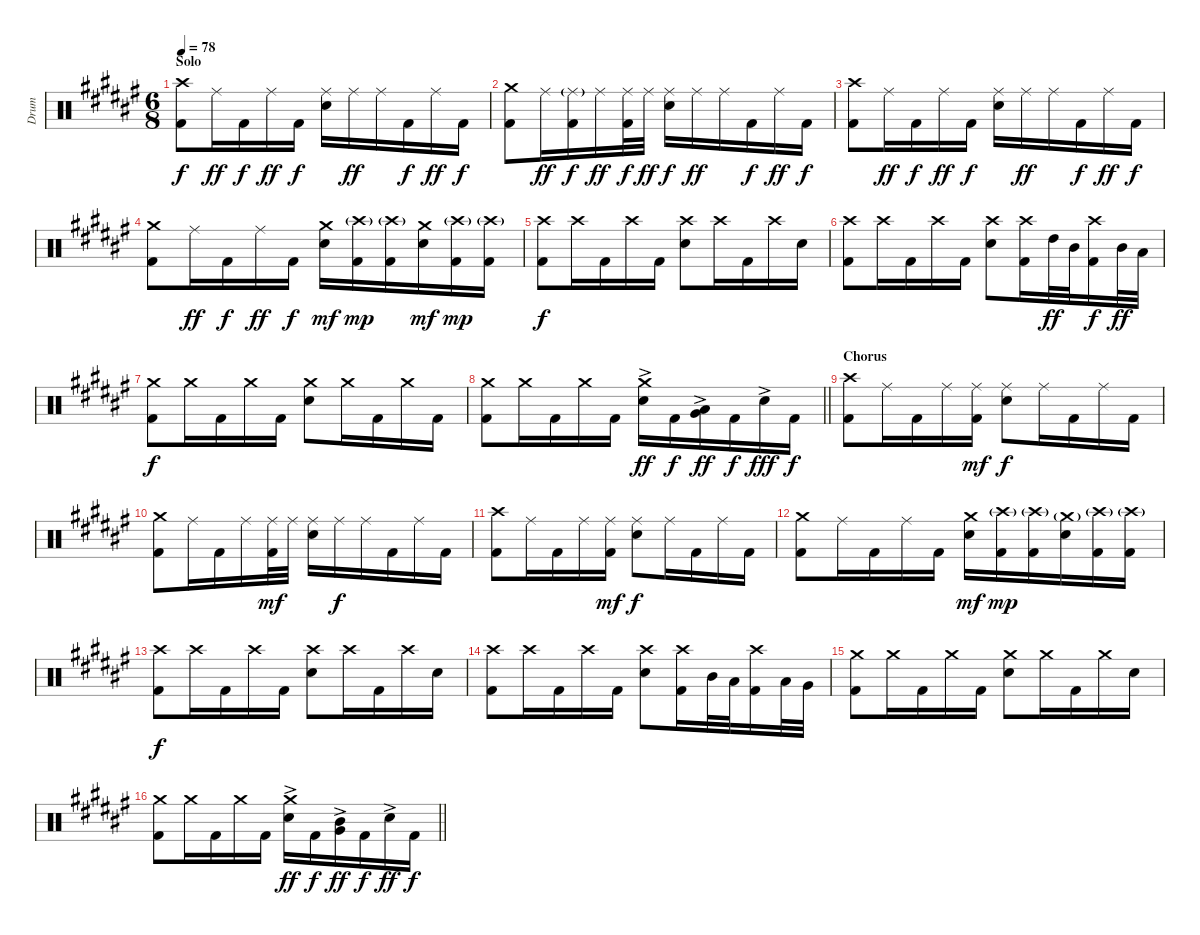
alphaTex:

\track ("Drum" "Drum") {instrument percussion}
\staff {score}
\articulation defaults
\ts (6 8)
\section ("" "Solo")
\tempo 78
\clef neutral
\ks d#minor
("Crash high (hit)" "Kick (hit) 2").8{dy f} "Ride (middle)".16{dy ff} "Kick (hit) 2".16{dy f} "Ride (middle)".16{dy ff} "Kick (hit) 2".16{dy f} ("Ride (middle)" "Electric Snare (hit)").16 "Ride (middle)".16{dy ff} "Ride (middle)".16 "Kick (hit) 2".16{dy f} "Ride (middle)".16{dy ff} "Kick (hit) 2".16{dy f} |
("Crash medium (hit)" "Kick (hit) 2").8 "Ride (middle)".16{dy ff} ("Ride (middle)"{g} "Kick (hit) 2").16{dy f} "Ride (middle)".16{dy ff} ("Ride (middle)" "Kick (hit) 2").32{dy f} "Ride (middle)".32{dy ff} ("Ride (middle)" "Electric Snare (hit)").16{dy f} "Ride (middle)".16{dy ff} "Ride (middle)".16 "Kick (hit) 2".16{dy f} "Ride (middle)".16{dy ff} "Kick (hit) 2".16{dy f} |
("Crash high (hit)" "Kick (hit) 2").8 "Ride (middle)".16{dy ff} "Kick (hit) 2".16{dy f} "Ride (middle)".16{dy ff} "Kick (hit) 2".16{dy f} ("Ride (middle)" "Electric Snare (hit)").16 "Ride (middle)".16{dy ff} "Ride (middle)".16 "Kick (hit) 2".16{dy f} "Ride (middle)".16{dy ff} "Kick (hit) 2".16{dy f} |
("Crash medium (hit)" "Kick (hit) 2").8 "Ride (middle)".16{dy ff} "Kick (hit) 2".16{dy f} "Ride (middle)".16{dy ff} "Kick (hit) 2".16{dy f} ("Crash medium (hit)" "Electric Snare (hit)").16{dy mf} ("Crash high (hit)"{g} "Kick (hit) 2").16{dy mp} ("Crash high (hit)"{g} "Kick (hit) 2").16 ("Crash medium (hit)" "Electric Snare (hit)").16{dy mf} ("Crash high (hit)"{g} "Kick (hit) 2").16{dy mp} ("Crash high (hit)"{g} "Kick (hit) 2").16 |
("Crash high (hit)" "Kick (hit) 2").8{dy f} "Crash high (hit)".16 "Kick (hit) 2".16 "Crash high (hit)".16 "Kick (hit) 2".16 ("Crash high (hit)" "Electric Snare (hit)").8 "Crash high (hit)".16 "Kick (hit) 2".16 "Crash high (hit)".16 "Electric Snare (hit)".16 |
("Crash high (hit)" "Kick (hit) 2").8 "Crash high (hit)".16 "Kick (hit) 2".16 "Crash high (hit)".16 "Kick (hit) 2".16 ("Crash high (hit)" "Electric Snare (hit)").8 ("Crash high (hit)" "Kick (hit) 2").16 "High Tom (hit)".32{dy ff} "Mid Tom (hit)".32 ("Crash high (hit)" "Kick (hit) 2").16{dy f} "Mid Tom (hit)".32{dy ff} "Low Tom (hit)".32 |
("Crash medium (hit)" "Kick (hit) 2").8{dy f} "Crash medium (hit)".16 "Kick (hit) 2".16 "Crash medium (hit)".16 "Kick (hit) 2".16 ("Crash medium (hit)" "Electric Snare (hit)").8 "Crash medium (hit)".16 "Kick (hit) 2".16 "Crash medium (hit)".16 "Kick (hit) 2".16 |
\barLineRight lightlight
("Crash medium (hit)" "Kick (hit) 2").8 "Crash medium (hit)".16 "Kick (hit) 2".16 "Crash medium (hit)".16 "Kick (hit) 2".16 ("Crash medium (hit)" "Electric Snare (hit)"{ac}).16{dy ff} "Kick (hit) 2".16{dy f} ("Low Tom (hit)" "Very Low Tom (hit)"{ac}).16{dy ff} "Kick (hit) 2".16{dy f} "Electric Snare (hit)"{ac}.16{dy fff} "Kick (hit) 2".16{dy f} |
\section ("" "Chorus")
("Crash high (hit)" "Kick (hit) 2").8 "Ride (middle)".16 "Kick (hit) 2".16 "Ride (middle)".16 ("Ride (middle)" "Kick (hit) 2").16{dy mf} ("Ride (middle)" "Electric Snare (hit)").8{dy f} "Ride (middle)".16 "Kick (hit) 2".16 "Ride (middle)".16 "Kick (hit) 2".16 |
("Crash medium (hit)" "Kick (hit) 2").8 "Ride (middle)".16 "Kick (hit) 2".16 "Ride (middle)".16 ("Ride (middle)" "Kick (hit) 2").32{dy mf} "Ride (middle)".32 ("Ride (middle)" "Electric Snare (hit)").16 "Ride (middle)".16{dy f} "Ride (middle)".16 "Kick (hit) 2".16 "Ride (middle)".16 "Kick (hit) 2".16 |
("Crash high (hit)" "Kick (hit) 2").8 "Ride (middle)".16 "Kick (hit) 2".16 "Ride (middle)".16 ("Ride (middle)" "Kick (hit) 2").16{dy mf} ("Ride (middle)" "Electric Snare (hit)").8{dy f} "Ride (middle)".16 "Kick (hit) 2".16 "Ride (middle)".16 "Kick (hit) 2".16 |
("Crash medium (hit)" "Kick (hit) 2").8 "Ride (middle)".16 "Kick (hit) 2".16 "Ride (middle)".16 "Kick (hit) 2".16 ("Crash medium (hit)" "Electric Snare (hit)").16{dy mf} ("Crash high (hit)"{g} "Kick (hit) 2").16{dy mp} ("Crash high (hit)"{g} "Kick (hit) 2").16 ("Crash medium (hit)"{g} "Electric Snare (hit)").16 ("Crash high (hit)"{g} "Kick (hit) 2").16 ("Crash high (hit)"{g} "Kick (hit) 2").16 |
("Crash high (hit)" "Kick (hit) 2").8{dy f} "Crash high (hit)".16 "Kick (hit) 2".16 "Crash high (hit)".16 "Kick (hit) 2".16 ("Crash high (hit)" "Electric Snare (hit)").8 "Crash high (hit)".16 "Kick (hit) 2".16 "Crash high (hit)".16 "Electric Snare (hit)".16 |
("Crash high (hit)" "Kick (hit) 2").8 "Crash high (hit)".16 "Kick (hit) 2".16 "Crash high (hit)".16 "Kick (hit) 2".16 ("Crash high (hit)" "Electric Snare (hit)").8 ("Crash high (hit)" "Kick (hit) 2").16 "Mid Tom (hit)".32 "Low Tom (hit)".32 ("Crash high (hit)" "Kick (hit) 2").16 "Low Tom (hit)".32 "Very Low Tom (hit)".32 |
("Crash medium (hit)" "Kick (hit) 2").8 "Crash medium (hit)".16 "Kick (hit) 2".16 "Crash medium (hit)".16 "Kick (hit) 2".16 ("Crash medium (hit)" "Electric Snare (hit)").8 "Crash medium (hit)".16 "Kick (hit) 2".16 "Crash medium (hit)".16 "Electric Snare (hit)".16 |
\barLineRight lightlight
("Crash medium (hit)" "Kick (hit) 2").8 "Crash medium (hit)".16 "Kick (hit) 2".16 "Crash medium (hit)".16 "Kick (hit) 2".16 ("Crash medium (hit)" "Electric Snare (hit)"{ac}).16{dy ff} "Kick (hit) 2".16{dy f} ("Mid Tom (hit)" "Very Low Tom (hit)"{ac}).16{dy ff} "Kick (hit) 2".16{dy f} "Electric Snare (hit)"{ac}.16{dy ff} "Kick (hit) 2".16{dy f}
